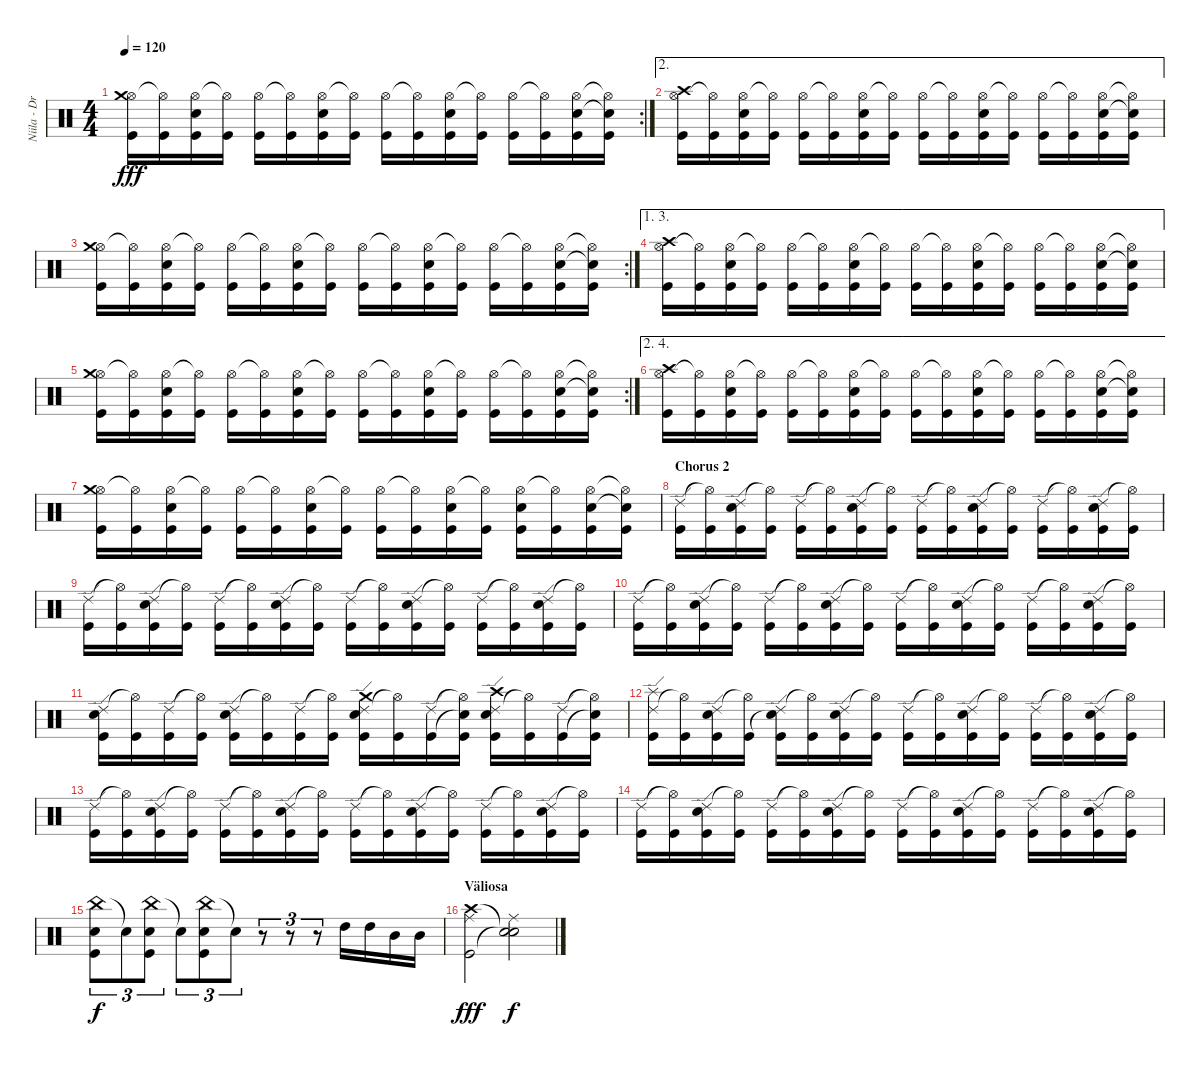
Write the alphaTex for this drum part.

\track ("Niila - Drums" "Niila - Dr") {instrument percussion}
\staff {score}
\articulation defaults
\rc 2
\ts (4 4)
\tempo 120
\clef neutral
\ks c
("Hi-Hat (open)" "Crash medium (hit)" "Kick (hit)").16{dy fff} ("Hi-Hat (open)"{t} "Kick (hit)").16 ("Hi-Hat (open)" "Snare (hit) 2" "Kick (hit)").16 ("Hi-Hat (open)"{t} "Kick (hit)").16 ("Hi-Hat (open)" "Kick (hit)").16 ("Hi-Hat (open)"{t} "Kick (hit)").16 ("Hi-Hat (open)" "Snare (hit) 2" "Kick (hit)").16 ("Hi-Hat (open)"{t} "Kick (hit)").16 ("Hi-Hat (open)" "Kick (hit)").16 ("Hi-Hat (open)"{t} "Kick (hit)").16 ("Hi-Hat (open)" "Snare (hit) 2" "Kick (hit)").16 ("Hi-Hat (open)"{t} "Kick (hit)").16 ("Hi-Hat (open)" "Kick (hit)").16 ("Hi-Hat (open)"{t} "Kick (hit)").16 ("Hi-Hat (open)" "Snare (hit) 2" "Kick (hit)").16 ("Hi-Hat (open)"{t} "Snare (hit)"{t} "Kick (hit)").16 |
\ae 2
("Hi-Hat (open)" "Crash high (hit)" "Kick (hit)").16 ("Hi-Hat (open)"{t} "Kick (hit)").16 ("Hi-Hat (open)" "Snare (hit) 2" "Kick (hit)").16 ("Hi-Hat (open)"{t} "Kick (hit)").16 ("Hi-Hat (open)" "Kick (hit)").16 ("Hi-Hat (open)"{t} "Kick (hit)").16 ("Hi-Hat (open)" "Snare (hit) 2" "Kick (hit)").16 ("Hi-Hat (open)"{t} "Kick (hit)").16 ("Hi-Hat (open)" "Kick (hit)").16 ("Hi-Hat (open)"{t} "Kick (hit)").16 ("Hi-Hat (open)" "Snare (hit) 2" "Kick (hit)").16 ("Hi-Hat (open)"{t} "Kick (hit)").16 ("Hi-Hat (open)" "Kick (hit)").16 ("Hi-Hat (open)"{t} "Kick (hit)").16 ("Hi-Hat (open)" "Snare (hit) 2" "Kick (hit)").16 ("Hi-Hat (open)"{t} "Snare (hit)"{t} "Kick (hit)").16 |
\rc 2
("Hi-Hat (open)" "Crash medium (hit)" "Kick (hit)").16 ("Hi-Hat (open)"{t} "Kick (hit)").16 ("Hi-Hat (open)" "Snare (hit) 2" "Kick (hit)").16 ("Hi-Hat (open)"{t} "Kick (hit)").16 ("Hi-Hat (open)" "Kick (hit)").16 ("Hi-Hat (open)"{t} "Kick (hit)").16 ("Hi-Hat (open)" "Snare (hit) 2" "Kick (hit)").16 ("Hi-Hat (open)"{t} "Kick (hit)").16 ("Hi-Hat (open)" "Kick (hit)").16 ("Hi-Hat (open)"{t} "Kick (hit)").16 ("Hi-Hat (open)" "Snare (hit) 2" "Kick (hit)").16 ("Hi-Hat (open)"{t} "Kick (hit)").16 ("Hi-Hat (open)" "Kick (hit)").16 ("Hi-Hat (open)"{t} "Kick (hit)").16 ("Hi-Hat (open)" "Snare (hit) 2" "Kick (hit)").16 ("Hi-Hat (open)"{t} "Snare (hit)"{t} "Kick (hit)").16 |
\ae (1 3)
("Hi-Hat (open)" "Crash high (hit)" "Kick (hit)").16 ("Hi-Hat (open)"{t} "Kick (hit)").16 ("Hi-Hat (open)" "Snare (hit) 2" "Kick (hit)").16 ("Hi-Hat (open)"{t} "Kick (hit)").16 ("Hi-Hat (open)" "Kick (hit)").16 ("Hi-Hat (open)"{t} "Kick (hit)").16 ("Hi-Hat (open)" "Snare (hit) 2" "Kick (hit)").16 ("Hi-Hat (open)"{t} "Kick (hit)").16 ("Hi-Hat (open)" "Kick (hit)").16 ("Hi-Hat (open)"{t} "Kick (hit)").16 ("Hi-Hat (open)" "Snare (hit) 2" "Kick (hit)").16 ("Hi-Hat (open)"{t} "Kick (hit)").16 ("Hi-Hat (open)" "Kick (hit)").16 ("Hi-Hat (open)"{t} "Kick (hit)").16 ("Hi-Hat (open)" "Snare (hit) 2" "Kick (hit)").16 ("Hi-Hat (open)"{t} "Snare (hit)"{t} "Kick (hit)").16 |
\rc 2
("Hi-Hat (open)" "Crash medium (hit)" "Kick (hit)").16 ("Hi-Hat (open)"{t} "Kick (hit)").16 ("Hi-Hat (open)" "Snare (hit) 2" "Kick (hit)").16 ("Hi-Hat (open)"{t} "Kick (hit)").16 ("Hi-Hat (open)" "Kick (hit)").16 ("Hi-Hat (open)"{t} "Kick (hit)").16 ("Hi-Hat (open)" "Snare (hit) 2" "Kick (hit)").16 ("Hi-Hat (open)"{t} "Kick (hit)").16 ("Hi-Hat (open)" "Kick (hit)").16 ("Hi-Hat (open)"{t} "Kick (hit)").16 ("Hi-Hat (open)" "Snare (hit) 2" "Kick (hit)").16 ("Hi-Hat (open)"{t} "Kick (hit)").16 ("Hi-Hat (open)" "Kick (hit)").16 ("Hi-Hat (open)"{t} "Kick (hit)").16 ("Hi-Hat (open)" "Snare (hit) 2" "Kick (hit)").16 ("Hi-Hat (open)"{t} "Snare (hit)"{t} "Kick (hit)").16 |
\ae (2 4)
("Hi-Hat (open)" "Crash high (hit)" "Kick (hit)").16 ("Hi-Hat (open)"{t} "Kick (hit)").16 ("Hi-Hat (open)" "Snare (hit) 2" "Kick (hit)").16 ("Hi-Hat (open)"{t} "Kick (hit)").16 ("Hi-Hat (open)" "Kick (hit)").16 ("Hi-Hat (open)"{t} "Kick (hit)").16 ("Hi-Hat (open)" "Snare (hit) 2" "Kick (hit)").16 ("Hi-Hat (open)"{t} "Kick (hit)").16 ("Hi-Hat (open)" "Kick (hit)").16 ("Hi-Hat (open)"{t} "Kick (hit)").16 ("Hi-Hat (open)" "Snare (hit) 2" "Kick (hit)").16 ("Hi-Hat (open)"{t} "Kick (hit)").16 ("Hi-Hat (open)" "Kick (hit)").16 ("Hi-Hat (open)"{t} "Kick (hit)").16 ("Hi-Hat (open)" "Snare (hit) 2" "Kick (hit)").16 ("Hi-Hat (open)"{t} "Snare (hit)"{t} "Kick (hit)").16 |
("Hi-Hat (open)" "Crash medium (hit)" "Kick (hit)").16 ("Hi-Hat (open)"{t} "Kick (hit)").16 ("Hi-Hat (open)" "Snare (hit) 2" "Kick (hit)").16 ("Hi-Hat (open)"{t} "Kick (hit)").16 ("Hi-Hat (open)" "Kick (hit)").16 ("Hi-Hat (open)"{t} "Kick (hit)").16 ("Hi-Hat (open)" "Snare (hit) 2" "Kick (hit)").16 ("Hi-Hat (open)"{t} "Kick (hit)").16 ("Hi-Hat (open)" "Kick (hit)").16 ("Hi-Hat (open)"{t} "Kick (hit)").16 ("Hi-Hat (open)" "Snare (hit) 2" "Kick (hit)").16 ("Hi-Hat (open)"{t} "Kick (hit)").16 ("Hi-Hat (open)" "Snare (hit) 2" "Kick (hit)").16 ("Hi-Hat (open)"{t} "Kick (hit)").16 ("Hi-Hat (open)" "Snare (hit) 2" "Kick (hit)").16 ("Hi-Hat (open)"{t} "Snare (hit)"{t} "Kick (hit)").16 |
\section ("" "Chorus 2")
("Ride (edge) 2" "Kick (hit)").16 ("Hi-Hat (open)"{t} "Kick (hit)").16 ("Ride (edge) 2" "Snare (hit) 2" "Kick (hit)").16 ("Hi-Hat (open)"{t} "Kick (hit)").16 ("Ride (edge) 2" "Kick (hit)").16 ("Hi-Hat (open)"{t} "Kick (hit)").16 ("Ride (edge) 2" "Snare (hit) 2" "Kick (hit)").16 ("Hi-Hat (open)"{t} "Kick (hit)").16 ("Ride (edge) 2" "Kick (hit)").16 ("Hi-Hat (open)"{t} "Kick (hit)").16 ("Ride (edge) 2" "Snare (hit) 2" "Kick (hit)").16 ("Hi-Hat (open)"{t} "Kick (hit)").16 ("Ride (edge) 2" "Kick (hit)").16 ("Hi-Hat (open)"{t} "Kick (hit)").16 ("Ride (edge) 2" "Snare (hit) 2" "Kick (hit)").16 ("Hi-Hat (open)"{t} "Kick (hit)").16 |
("Ride (edge) 2" "Kick (hit)").16 ("Hi-Hat (open)"{t} "Kick (hit)").16 ("Ride (edge) 2" "Snare (hit) 2" "Kick (hit)").16 ("Hi-Hat (open)"{t} "Kick (hit)").16 ("Ride (edge) 2" "Kick (hit)").16 ("Hi-Hat (open)"{t} "Kick (hit)").16 ("Ride (edge) 2" "Snare (hit) 2" "Kick (hit)").16 ("Hi-Hat (open)"{t} "Kick (hit)").16 ("Ride (edge) 2" "Kick (hit)").16 ("Hi-Hat (open)"{t} "Kick (hit)").16 ("Ride (edge) 2" "Snare (hit) 2" "Kick (hit)").16 ("Hi-Hat (open)"{t} "Kick (hit)").16 ("Ride (edge) 2" "Kick (hit)").16 ("Hi-Hat (open)"{t} "Kick (hit)").16 ("Ride (edge) 2" "Snare (hit) 2" "Kick (hit)").16 ("Hi-Hat (open)"{t} "Kick (hit)").16 |
("Ride (edge) 2" "Kick (hit)").16 ("Hi-Hat (open)"{t} "Kick (hit)").16 ("Ride (edge) 2" "Snare (hit) 2" "Kick (hit)").16 ("Hi-Hat (open)"{t} "Kick (hit)").16 ("Ride (edge) 2" "Kick (hit)").16 ("Hi-Hat (open)"{t} "Kick (hit)").16 ("Ride (edge) 2" "Snare (hit) 2" "Kick (hit)").16 ("Hi-Hat (open)"{t} "Kick (hit)").16 ("Ride (edge) 2" "Kick (hit)").16 ("Hi-Hat (open)"{t} "Kick (hit)").16 ("Ride (edge) 2" "Snare (hit) 2" "Kick (hit)").16 ("Hi-Hat (open)"{t} "Kick (hit)").16 ("Ride (edge) 2" "Kick (hit)").16 ("Hi-Hat (open)"{t} "Kick (hit)").16 ("Ride (edge) 2" "Snare (hit) 2" "Kick (hit)").16 ("Hi-Hat (open)"{t} "Kick (hit)").16 |
("Ride (edge) 2" "Snare (hit) 2" "Kick (hit)").16 ("Hi-Hat (open)"{t} "Kick (hit)").16 ("Ride (edge) 2" "Kick (hit)").16 ("Hi-Hat (open)"{t} "Kick (hit)").16 ("Ride (edge) 2" "Snare (hit) 2" "Kick (hit)").16 ("Hi-Hat (open)"{t} "Kick (hit)").16 ("Ride (edge) 2" "Kick (hit)").16 ("Hi-Hat (open)"{t} "Kick (hit)").16 ("Ride (edge) 2" "Crash medium (hit)" "Snare (hit) 2" "Kick (hit)").16 ("Hi-Hat (open)"{t} "Kick (hit)").16 ("Ride (edge) 2" "Kick (hit)").16 ("Hi-Hat (open)"{t} "Snare (hit)"{t} "Kick (hit)").16 ("Ride (edge) 2" "Crash high (hit)" "Snare (hit) 2" "Kick (hit)").16 ("Hi-Hat (open)"{t} "Kick (hit)").16 ("Ride (edge) 2" "Kick (hit)").16 ("Hi-Hat (open)"{t} "Snare (hit)"{t} "Kick (hit)").16 |
("Ride (edge) 2" "Splash (hit)" "Kick (hit)").16 ("Hi-Hat (open)"{t} "Kick (hit)").16 ("Ride (edge) 2" "Snare (hit) 2" "Kick (hit)").16 ("Hi-Hat (open)"{t} "Kick (hit)").16 ("Ride (edge) 2" "Snare (hit)"{t} "Kick (hit)").16 ("Hi-Hat (open)"{t} "Kick (hit)").16 ("Ride (edge) 2" "Snare (hit) 2" "Kick (hit)").16 ("Hi-Hat (open)"{t} "Kick (hit)").16 ("Ride (edge) 2" "Kick (hit)").16 ("Hi-Hat (open)"{t} "Kick (hit)").16 ("Ride (edge) 2" "Snare (hit) 2" "Kick (hit)").16 ("Hi-Hat (open)"{t} "Kick (hit)").16 ("Ride (edge) 2" "Kick (hit)").16 ("Hi-Hat (open)"{t} "Kick (hit)").16 ("Ride (edge) 2" "Snare (hit) 2" "Kick (hit)").16 ("Hi-Hat (open)"{t} "Kick (hit)").16 |
("Ride (edge) 2" "Kick (hit)").16 ("Hi-Hat (open)"{t} "Kick (hit)").16 ("Ride (edge) 2" "Snare (hit) 2" "Kick (hit)").16 ("Hi-Hat (open)"{t} "Kick (hit)").16 ("Ride (edge) 2" "Kick (hit)").16 ("Hi-Hat (open)"{t} "Kick (hit)").16 ("Ride (edge) 2" "Snare (hit) 2" "Kick (hit)").16 ("Hi-Hat (open)"{t} "Kick (hit)").16 ("Ride (edge) 2" "Kick (hit)").16 ("Hi-Hat (open)"{t} "Kick (hit)").16 ("Ride (edge) 2" "Snare (hit) 2" "Kick (hit)").16 ("Hi-Hat (open)"{t} "Kick (hit)").16 ("Ride (edge) 2" "Kick (hit)").16 ("Hi-Hat (open)"{t} "Kick (hit)").16 ("Ride (edge) 2" "Snare (hit) 2" "Kick (hit)").16 ("Hi-Hat (open)"{t} "Kick (hit)").16 |
("Ride (edge) 2" "Kick (hit)").16 ("Hi-Hat (open)"{t} "Kick (hit)").16 ("Ride (edge) 2" "Snare (hit) 2" "Kick (hit)").16 ("Hi-Hat (open)"{t} "Kick (hit)").16 ("Ride (edge) 2" "Kick (hit)").16 ("Hi-Hat (open)"{t} "Kick (hit)").16 ("Ride (edge) 2" "Snare (hit) 2" "Kick (hit)").16 ("Hi-Hat (open)"{t} "Kick (hit)").16 ("Ride (edge) 2" "Kick (hit)").16 ("Hi-Hat (open)"{t} "Kick (hit)").16 ("Ride (edge) 2" "Snare (hit) 2" "Kick (hit)").16 ("Hi-Hat (open)"{t} "Kick (hit)").16 ("Ride (edge) 2" "Kick (hit)").16 ("Hi-Hat (open)"{t} "Kick (hit)").16 ("Ride (edge) 2" "Snare (hit) 2" "Kick (hit)").16 ("Hi-Hat (open)"{t} "Kick (hit)").16 |
("China (hit)" "Snare (hit) 2" "Kick (hit)").8{tu (3 2) dy f} "Snare (hit)"{t}.8{tu (3 2)} ("China (hit)" "Snare (hit) 2" "Kick (hit)").8{tu (3 2)} "Snare (hit)"{t}.8{tu (3 2)} ("China (hit)" "Snare (hit) 2" "Kick (hit)").8{tu (3 2)} "Snare (hit)"{t}.8{tu (3 2)} r.8{tu (3 2)} r.8{tu (3 2)} r.8{tu (3 2)} "High Tom (hit)".16 "High Tom (hit)".16 "Mid Tom (hit)".16 "Mid Tom (hit)".16 |
\section ("" "Väliosa")
("Ride (middle)" "Crash high (hit)" "Kick (hit)").2{dy fff balance 9} ("Ride (middle)" "Snare (hit)"{t} "Snare (hit)"{t}).2{dy f}
